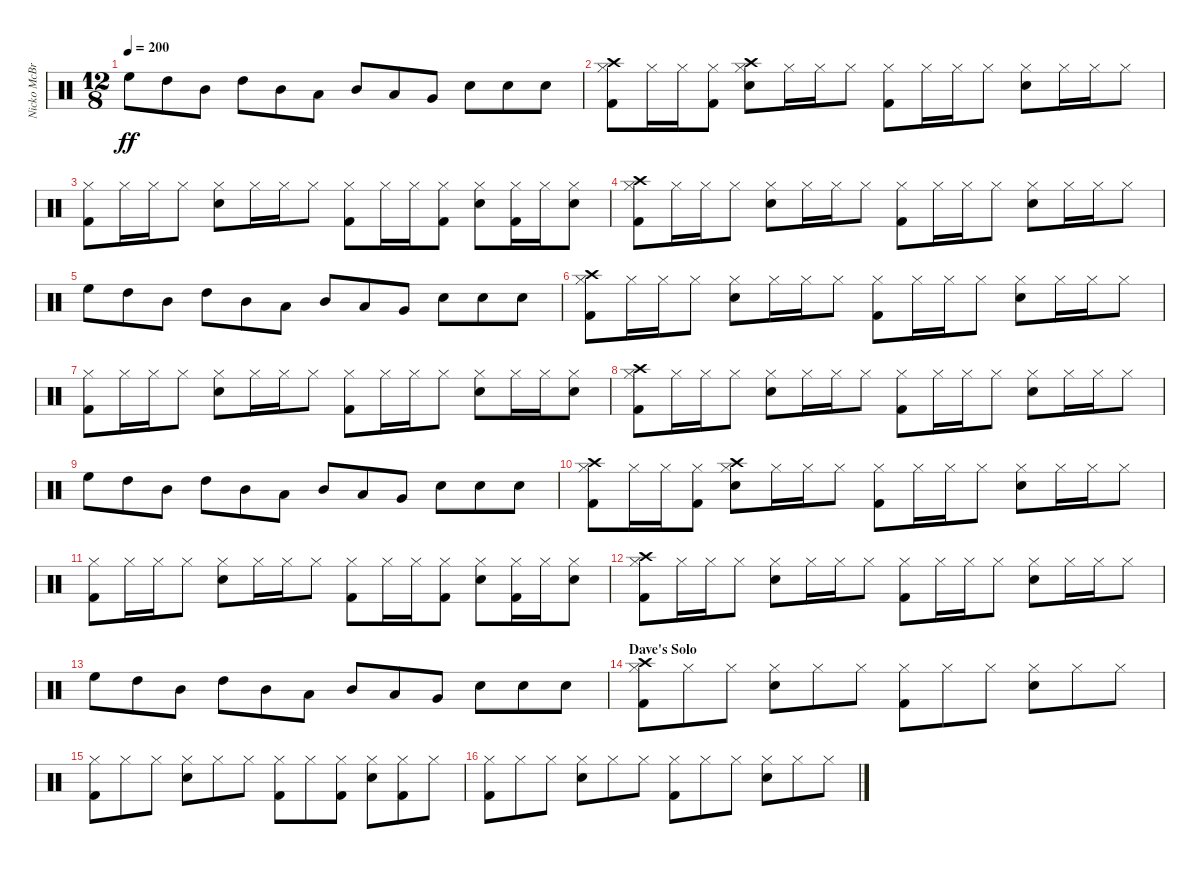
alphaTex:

\track ("Nicko McBrain" "Nicko McBr") {instrument percussion}
\staff {score}
\articulation defaults
\ts (12 8)
\tempo 200
\clef neutral
\ks c "High Floor Tom (hit)".8{dy ff} "High Tom (hit)".8 "Mid Tom (hit)".8 "High Tom (hit)".8 "Mid Tom (hit)".8 "Low Tom (hit)".8 "Mid Tom (hit)".8 "Low Tom (hit)".8 "Very Low Tom (hit)".8 "Snare (hit) 2".8 "Snare (hit) 2".8 "Snare (hit) 2".8
|
("Kick (hit) 2" "Hi-Hat (closed)" "Crash high (hit)").8 "Hi-Hat (closed)".16 "Hi-Hat (closed)".16 ("Kick (hit) 2" "Hi-Hat (closed)").8 ("Snare (hit) 2" "Hi-Hat (closed)" "Crash high (hit)").8 "Hi-Hat (closed)".16 "Hi-Hat (closed)".16 "Hi-Hat (closed)".8 ("Kick (hit) 2" "Hi-Hat (closed)").8 "Hi-Hat (closed)".16 "Hi-Hat (closed)".16 "Hi-Hat (closed)".8 ("Snare (hit) 2" "Hi-Hat (closed)").8 "Hi-Hat (closed)".16 "Hi-Hat (closed)".16 "Hi-Hat (closed)".8 |
("Kick (hit) 2" "Hi-Hat (closed)").8 "Hi-Hat (closed)".16 "Hi-Hat (closed)".16 "Hi-Hat (closed)".8 ("Snare (hit) 2" "Hi-Hat (closed)").8 "Hi-Hat (closed)".16 "Hi-Hat (closed)".16 "Hi-Hat (closed)".8 ("Kick (hit) 2" "Hi-Hat (closed)").8 "Hi-Hat (closed)".16 "Hi-Hat (closed)".16 ("Kick (hit) 2" "Hi-Hat (closed)").8 ("Snare (hit) 2" "Hi-Hat (closed)").8 ("Kick (hit) 2" "Hi-Hat (closed)").16 "Hi-Hat (closed)".16 ("Snare (hit) 2" "Hi-Hat (closed)").8 |
("Kick (hit) 2" "Hi-Hat (closed)" "Crash high (hit)").8 "Hi-Hat (closed)".16 "Hi-Hat (closed)".16 "Hi-Hat (closed)".8 ("Snare (hit) 2" "Hi-Hat (closed)").8 "Hi-Hat (closed)".16 "Hi-Hat (closed)".16 "Hi-Hat (closed)".8 ("Kick (hit) 2" "Hi-Hat (closed)").8 "Hi-Hat (closed)".16 "Hi-Hat (closed)".16 "Hi-Hat (closed)".8 ("Snare (hit) 2" "Hi-Hat (closed)").8 "Hi-Hat (closed)".16 "Hi-Hat (closed)".16 "Hi-Hat (closed)".8 |
"High Floor Tom (hit)".8 "High Tom (hit)".8 "Mid Tom (hit)".8 "High Tom (hit)".8 "Mid Tom (hit)".8 "Low Tom (hit)".8 "Mid Tom (hit)".8 "Low Tom (hit)".8 "Very Low Tom (hit)".8 "Snare (hit) 2".8 "Snare (hit) 2".8 "Snare (hit) 2".8 |
("Kick (hit) 2" "Hi-Hat (closed)" "Crash high (hit)").8 "Hi-Hat (closed)".16 "Hi-Hat (closed)".16 "Hi-Hat (closed)".8 ("Snare (hit) 2" "Hi-Hat (closed)").8 "Hi-Hat (closed)".16 "Hi-Hat (closed)".16 "Hi-Hat (closed)".8 ("Kick (hit) 2" "Hi-Hat (closed)").8 "Hi-Hat (closed)".16 "Hi-Hat (closed)".16 "Hi-Hat (closed)".8 ("Snare (hit) 2" "Hi-Hat (closed)").8 "Hi-Hat (closed)".16 "Hi-Hat (closed)".16 "Hi-Hat (closed)".8 |
("Kick (hit) 2" "Hi-Hat (closed)").8 "Hi-Hat (closed)".16 "Hi-Hat (closed)".16 "Hi-Hat (closed)".8 ("Snare (hit) 2" "Hi-Hat (closed)").8 "Hi-Hat (closed)".16 "Hi-Hat (closed)".16 "Hi-Hat (closed)".8 ("Kick (hit) 2" "Hi-Hat (closed)").8 "Hi-Hat (closed)".16 "Hi-Hat (closed)".16 "Hi-Hat (closed)".8 ("Snare (hit) 2" "Hi-Hat (closed)").8 "Hi-Hat (closed)".16 "Hi-Hat (closed)".16 ("Snare (hit) 2" "Hi-Hat (closed)").8 |
("Kick (hit) 2" "Hi-Hat (closed)" "Crash high (hit)").8 "Hi-Hat (closed)".16 "Hi-Hat (closed)".16 "Hi-Hat (closed)".8 ("Snare (hit) 2" "Hi-Hat (closed)").8 "Hi-Hat (closed)".16 "Hi-Hat (closed)".16 "Hi-Hat (closed)".8 ("Kick (hit) 2" "Hi-Hat (closed)").8 "Hi-Hat (closed)".16 "Hi-Hat (closed)".16 "Hi-Hat (closed)".8 ("Snare (hit) 2" "Hi-Hat (closed)").8 "Hi-Hat (closed)".16 "Hi-Hat (closed)".16 "Hi-Hat (closed)".8 |
"High Floor Tom (hit)".8 "High Tom (hit)".8 "Mid Tom (hit)".8 "High Tom (hit)".8 "Mid Tom (hit)".8 "Low Tom (hit)".8 "Mid Tom (hit)".8 "Low Tom (hit)".8 "Very Low Tom (hit)".8 "Snare (hit) 2".8 "Snare (hit) 2".8 "Snare (hit) 2".8 |
("Kick (hit) 2" "Hi-Hat (closed)" "Crash high (hit)").8 "Hi-Hat (closed)".16 "Hi-Hat (closed)".16 ("Kick (hit) 2" "Hi-Hat (closed)").8 ("Snare (hit) 2" "Hi-Hat (closed)" "Crash high (hit)").8 "Hi-Hat (closed)".16 "Hi-Hat (closed)".16 "Hi-Hat (closed)".8 ("Kick (hit) 2" "Hi-Hat (closed)").8 "Hi-Hat (closed)".16 "Hi-Hat (closed)".16 "Hi-Hat (closed)".8 ("Snare (hit) 2" "Hi-Hat (closed)").8 "Hi-Hat (closed)".16 "Hi-Hat (closed)".16 "Hi-Hat (closed)".8 |
("Kick (hit) 2" "Hi-Hat (closed)").8 "Hi-Hat (closed)".16 "Hi-Hat (closed)".16 "Hi-Hat (closed)".8 ("Snare (hit) 2" "Hi-Hat (closed)").8 "Hi-Hat (closed)".16 "Hi-Hat (closed)".16 "Hi-Hat (closed)".8 ("Kick (hit) 2" "Hi-Hat (closed)").8 "Hi-Hat (closed)".16 "Hi-Hat (closed)".16 ("Kick (hit) 2" "Hi-Hat (closed)").8 ("Snare (hit) 2" "Hi-Hat (closed)").8 ("Kick (hit) 2" "Hi-Hat (closed)").16 "Hi-Hat (closed)".16 ("Snare (hit) 2" "Hi-Hat (closed)").8 |
("Kick (hit) 2" "Hi-Hat (closed)" "Crash high (hit)").8 "Hi-Hat (closed)".16 "Hi-Hat (closed)".16 "Hi-Hat (closed)".8 ("Snare (hit) 2" "Hi-Hat (closed)").8 "Hi-Hat (closed)".16 "Hi-Hat (closed)".16 "Hi-Hat (closed)".8 ("Kick (hit) 2" "Hi-Hat (closed)").8 "Hi-Hat (closed)".16 "Hi-Hat (closed)".16 "Hi-Hat (closed)".8 ("Snare (hit) 2" "Hi-Hat (closed)").8 "Hi-Hat (closed)".16 "Hi-Hat (closed)".16 "Hi-Hat (closed)".8 |
"High Floor Tom (hit)".8 "High Tom (hit)".8 "Mid Tom (hit)".8 "High Tom (hit)".8 "Mid Tom (hit)".8 "Low Tom (hit)".8 "Mid Tom (hit)".8 "Low Tom (hit)".8 "Very Low Tom (hit)".8 "Snare (hit) 2".8 "Snare (hit) 2".8 "Snare (hit) 2".8 |
\section ("" "Dave's Solo")
("Kick (hit) 2" "Hi-Hat (closed)" "Crash high (hit)").8 "Hi-Hat (closed)".8 "Hi-Hat (closed)".8 ("Snare (hit) 2" "Hi-Hat (closed)").8 "Hi-Hat (closed)".8 "Hi-Hat (closed)".8 ("Kick (hit) 2" "Hi-Hat (closed)").8 "Hi-Hat (closed)".8 "Hi-Hat (closed)".8 ("Snare (hit) 2" "Hi-Hat (closed)").8 "Hi-Hat (closed)".8 "Hi-Hat (closed)".8 |
("Kick (hit) 2" "Hi-Hat (closed)").8 "Hi-Hat (closed)".8 "Hi-Hat (closed)".8 ("Snare (hit) 2" "Hi-Hat (closed)").8 "Hi-Hat (closed)".8 "Hi-Hat (closed)".8 ("Kick (hit) 2" "Hi-Hat (closed)").8 "Hi-Hat (closed)".8 ("Kick (hit) 2" "Hi-Hat (closed)").8 ("Snare (hit) 2" "Hi-Hat (closed)").8 ("Kick (hit) 2" "Hi-Hat (closed)").8 "Hi-Hat (closed)".8 |
("Kick (hit) 2" "Hi-Hat (closed)").8 "Hi-Hat (closed)".8 "Hi-Hat (closed)".8 ("Snare (hit) 2" "Hi-Hat (closed)").8 "Hi-Hat (closed)".8 "Hi-Hat (closed)".8 ("Kick (hit) 2" "Hi-Hat (closed)").8 "Hi-Hat (closed)".8 "Hi-Hat (closed)".8 ("Snare (hit) 2" "Hi-Hat (closed)").8 "Hi-Hat (closed)".8 "Hi-Hat (closed)".8
